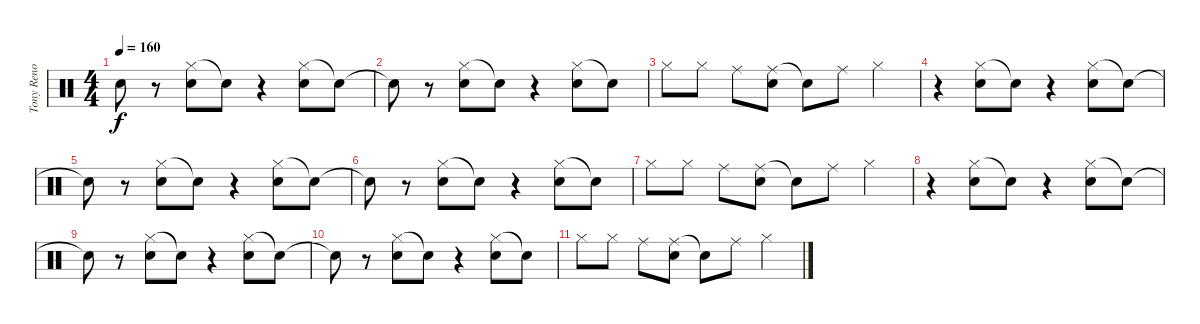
\track ("Tony Reno" "Tony Reno") {instrument percussion}
\staff {score}
\articulation defaults
\ts (4 4)
\tempo 160
\clef neutral
\ks c "Snare (hit)"{t}.8{dy f}
r.8 ("Hi-Hat (closed)" "Snare (hit) 2").8 "Snare (hit)"{t}.8 r.4 ("Hi-Hat (closed)" "Snare (hit) 2").8 "Snare (hit)"{t}.8 |
"Snare (hit)"{t}.8 r.8 ("Hi-Hat (closed)" "Snare (hit) 2").8 "Snare (hit)"{t}.8 r.4 ("Hi-Hat (closed)" "Snare (hit) 2").8 "Snare (hit)"{t}.8 |
"Hi-Hat (closed)".8 "Hi-Hat (closed)".8 "Ride (middle)".8 ("Ride (middle)" "Snare (hit) 2").8 "Snare (hit)"{t}.8 "Ride (middle)".8 "Hi-Hat (closed)".4 |
r.4 ("Hi-Hat (closed)" "Snare (hit) 2").8 "Snare (hit)"{t}.8 r.4 ("Hi-Hat (closed)" "Snare (hit) 2").8 "Snare (hit)"{t}.8 |
"Snare (hit)"{t}.8 r.8 ("Hi-Hat (closed)" "Snare (hit) 2").8 "Snare (hit)"{t}.8 r.4 ("Hi-Hat (closed)" "Snare (hit) 2").8 "Snare (hit)"{t}.8 |
"Snare (hit)"{t}.8 r.8 ("Hi-Hat (closed)" "Snare (hit) 2").8 "Snare (hit)"{t}.8 r.4 ("Hi-Hat (closed)" "Snare (hit) 2").8 "Snare (hit)"{t}.8 |
"Hi-Hat (closed)".8 "Hi-Hat (closed)".8 "Ride (middle)".8 ("Ride (middle)" "Snare (hit) 2").8 "Snare (hit)"{t}.8 "Ride (middle)".8 "Hi-Hat (closed)".4 |
r.4 ("Hi-Hat (closed)" "Snare (hit) 2").8 "Snare (hit)"{t}.8 r.4 ("Hi-Hat (closed)" "Snare (hit) 2").8 "Snare (hit)"{t}.8 |
"Snare (hit)"{t}.8 r.8 ("Hi-Hat (closed)" "Snare (hit) 2").8 "Snare (hit)"{t}.8 r.4 ("Hi-Hat (closed)" "Snare (hit) 2").8 "Snare (hit)"{t}.8 |
"Snare (hit)"{t}.8 r.8 ("Hi-Hat (closed)" "Snare (hit) 2").8 "Snare (hit)"{t}.8 r.4 ("Hi-Hat (closed)" "Snare (hit) 2").8 "Snare (hit)"{t}.8 |
"Hi-Hat (closed)".8 "Hi-Hat (closed)".8 "Ride (middle)".8 ("Ride (middle)" "Snare (hit) 2").8 "Snare (hit)"{t}.8 "Ride (middle)".8 "Hi-Hat (closed)".4
